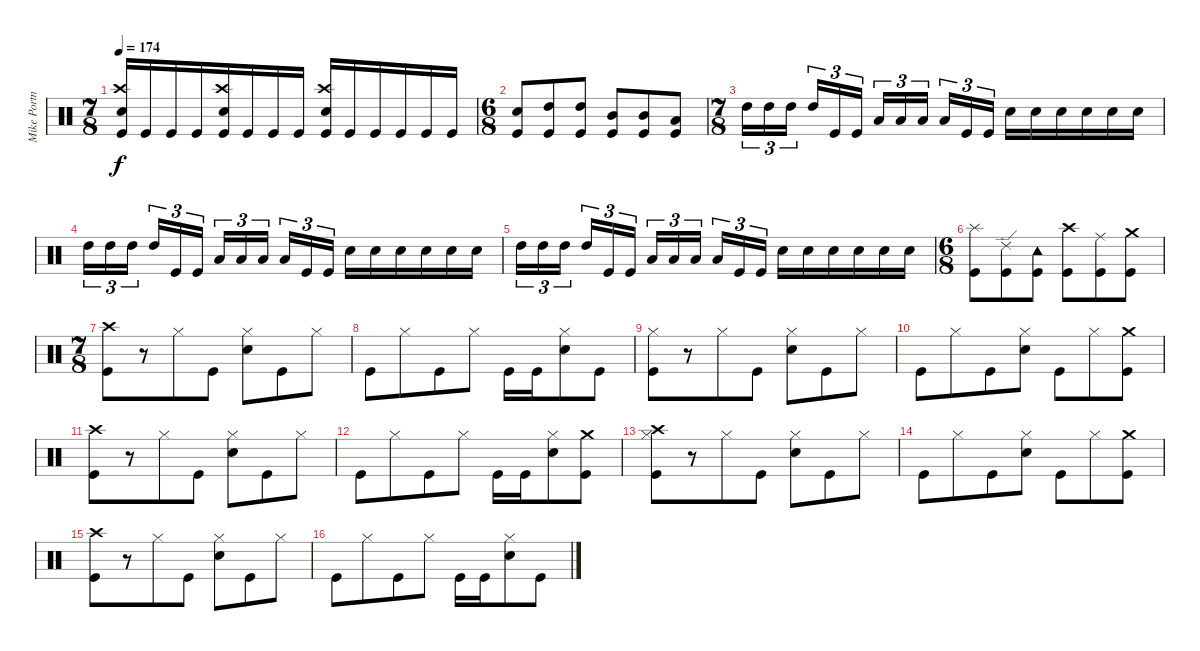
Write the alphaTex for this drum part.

\track ("Mike Portnoy" "Mike Portn") {instrument percussion}
\staff {score}
\articulation defaults
\ts (7 8)
\tempo 174
\clef neutral
\ks c
("Snare (hit) 2" "Crash high (hit)" "Kick (hit)").16{dy f} "Kick (hit)".16 "Kick (hit)".16 "Kick (hit)".16 ("Snare (hit) 2" "Crash high (hit)" "Kick (hit)").16 "Kick (hit)".16 "Kick (hit)".16 "Kick (hit)".16 ("Snare (hit) 2" "Crash high (hit)" "Kick (hit)").16 "Kick (hit)".16 "Kick (hit)".16 "Kick (hit)".16 "Kick (hit)".16 "Kick (hit)".16 |
\ts (6 8)
("Snare (hit) 2" "Kick (hit)").8 ("High Tom (hit)" "Kick (hit)").8 ("High Tom (hit)" "Kick (hit)").8 ("Mid Tom (hit)" "Kick (hit)").8 ("Mid Tom (hit)" "Kick (hit)").8 ("Low Tom (hit)" "Kick (hit)").8 |
\ts (7 8)
"High Tom (hit)".16{tu (3 2)} "High Tom (hit)".16{tu (3 2)} "High Tom (hit)".16{tu (3 2)} "High Tom (hit)".16{tu (3 2)} "Kick (hit)".16{tu (3 2)} "Kick (hit)".16{tu (3 2)} "Low Tom (hit)".16{tu (3 2)} "Low Tom (hit)".16{tu (3 2)} "Low Tom (hit)".16{tu (3 2)} "Low Tom (hit)".16{tu (3 2)} "Kick (hit)".16{tu (3 2)} "Kick (hit)".16{tu (3 2)} "Snare (hit) 2".16 "Snare (hit) 2".16 "Snare (hit) 2".16 "Snare (hit) 2".16 "Snare (hit) 2".16 "Snare (hit) 2".16 |
"High Tom (hit)".16{tu (3 2)} "High Tom (hit)".16{tu (3 2)} "High Tom (hit)".16{tu (3 2)} "High Tom (hit)".16{tu (3 2)} "Kick (hit)".16{tu (3 2)} "Kick (hit)".16{tu (3 2)} "Low Tom (hit)".16{tu (3 2)} "Low Tom (hit)".16{tu (3 2)} "Low Tom (hit)".16{tu (3 2)} "Low Tom (hit)".16{tu (3 2)} "Kick (hit)".16{tu (3 2)} "Kick (hit)".16{tu (3 2)} "Snare (hit) 2".16 "Snare (hit) 2".16 "Snare (hit) 2".16 "Snare (hit) 2".16 "Snare (hit) 2".16 "Snare (hit) 2".16 |
"High Tom (hit)".16{tu (3 2)} "High Tom (hit)".16{tu (3 2)} "High Tom (hit)".16{tu (3 2)} "High Tom (hit)".16{tu (3 2)} "Kick (hit)".16{tu (3 2)} "Kick (hit)".16{tu (3 2)} "Low Tom (hit)".16{tu (3 2)} "Low Tom (hit)".16{tu (3 2)} "Low Tom (hit)".16{tu (3 2)} "Low Tom (hit)".16{tu (3 2)} "Kick (hit)".16{tu (3 2)} "Kick (hit)".16{tu (3 2)} "Snare (hit) 2".16 "Snare (hit) 2".16 "Snare (hit) 2".16 "Snare (hit) 2".16 "Snare (hit) 2".16 "Snare (hit) 2".16 |
\ts (6 8)
("Splash (hit)" "Kick (hit)").8 ("Ride (edge) 2" "Kick (hit)").8 ("Tambourine (hit)" "Kick (hit)").8 ("Crash high (hit)" "Kick (hit)").8 ("Ride (middle)" "Kick (hit)").8 ("Crash medium (hit)" "Kick (hit)").8 |
\ts (7 8)
("Crash high (hit)" "Kick (hit)").8 r.8 "Hi-Hat (closed)".8 "Kick (hit)".8 ("Snare (hit) 2" "Hi-Hat (closed)").8 "Kick (hit)".8 "Hi-Hat (closed)".8 |
"Kick (hit)".8 "Hi-Hat (closed)".8 "Kick (hit)".8 "Hi-Hat (closed)".8 "Kick (hit)".16 "Kick (hit)".16 ("Snare (hit) 2" "Hi-Hat (closed)").8 "Kick (hit)".8 |
("Hi-Hat (closed)" "Kick (hit)").8 r.8 "Hi-Hat (closed)".8 "Kick (hit)".8 ("Snare (hit) 2" "Hi-Hat (closed)").8 "Kick (hit)".8 "Hi-Hat (closed)".8 |
"Kick (hit)".8 "Hi-Hat (closed)".8 "Kick (hit)".8 ("Snare (hit) 2" "Hi-Hat (closed)").8 "Kick (hit)".8 "Hi-Hat (closed)".8 ("Crash medium (hit)" "Kick (hit)").8 |
("Crash high (hit)" "Kick (hit)").8 r.8 "Hi-Hat (closed)".8 "Kick (hit)".8 ("Snare (hit) 2" "Hi-Hat (closed)").8 "Kick (hit)".8 "Hi-Hat (closed)".8 |
"Kick (hit)".8 "Hi-Hat (closed)".8 "Kick (hit)".8 "Hi-Hat (closed)".8 "Kick (hit)".16 "Kick (hit)".16 ("Snare (hit) 2" "Hi-Hat (closed)").8 ("Crash medium (hit)" "Kick (hit)").8 |
("Crash high (hit)" "Hi-Hat (closed)" "Kick (hit)").8 r.8 "Hi-Hat (closed)".8 "Kick (hit)".8 ("Snare (hit) 2" "Hi-Hat (closed)").8 "Kick (hit)".8 "Hi-Hat (closed)".8 |
"Kick (hit)".8 "Hi-Hat (closed)".8 "Kick (hit)".8 ("Snare (hit) 2" "Hi-Hat (closed)").8 "Kick (hit)".8 "Hi-Hat (closed)".8 ("Crash medium (hit)" "Kick (hit)").8 |
("Crash high (hit)" "Kick (hit)").8 r.8 "Hi-Hat (closed)".8 "Kick (hit)".8 ("Snare (hit) 2" "Hi-Hat (closed)").8 "Kick (hit)".8 "Hi-Hat (closed)".8 |
"Kick (hit)".8 "Hi-Hat (closed)".8 "Kick (hit)".8 "Hi-Hat (closed)".8 "Kick (hit)".16 "Kick (hit)".16 ("Snare (hit) 2" "Hi-Hat (closed)").8 "Kick (hit)".8
